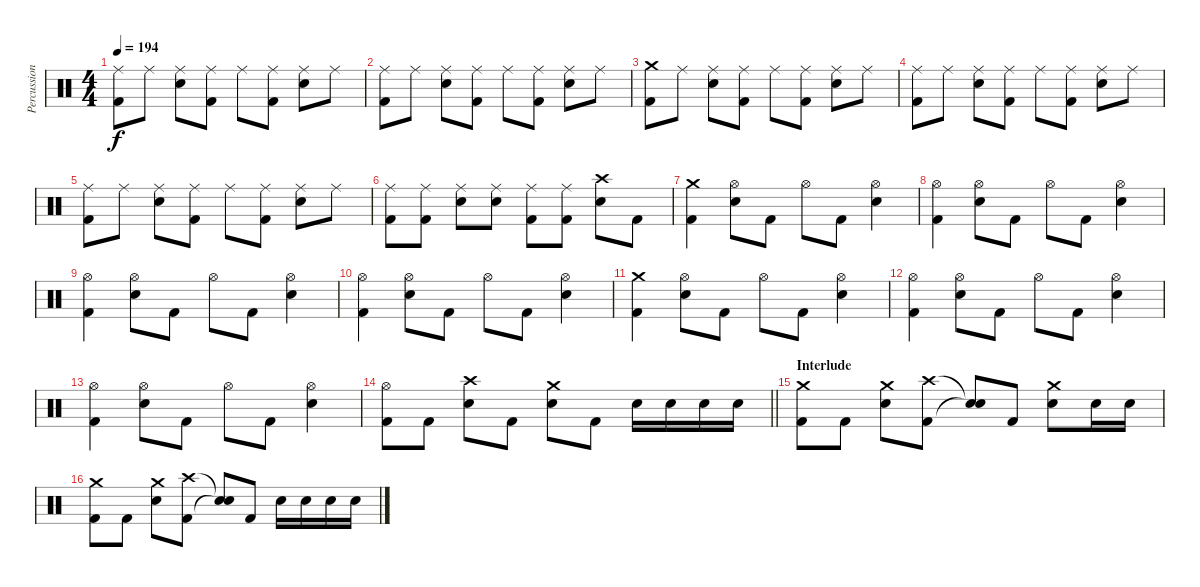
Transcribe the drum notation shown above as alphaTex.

\track ("Percussions" "Percussion") {instrument percussion}
\staff {score}
\articulation defaults
\ts (4 4)
\tempo 194
\clef neutral
\ks c
("Ride (middle)" "Kick (hit) 2").8{dy f} "Ride (middle)".8 ("Ride (middle)" "Electric Snare (hit)").8 ("Ride (middle)" "Kick (hit) 2").8 "Ride (middle)".8 ("Ride (middle)" "Kick (hit) 2").8 ("Ride (middle)" "Electric Snare (hit)").8 "Ride (middle)".8 |
("Ride (middle)" "Kick (hit) 2").8 "Ride (middle)".8 ("Ride (middle)" "Electric Snare (hit)").8 ("Ride (middle)" "Kick (hit) 2").8 "Ride (middle)".8 ("Ride (middle)" "Kick (hit) 2").8 ("Ride (middle)" "Electric Snare (hit)").8 "Ride (middle)".8 |
("Crash medium (hit)" "Kick (hit) 2").8 "Ride (middle)".8 ("Ride (middle)" "Electric Snare (hit)").8 ("Ride (middle)" "Kick (hit) 2").8 "Ride (middle)".8 ("Ride (middle)" "Kick (hit) 2").8 ("Ride (middle)" "Electric Snare (hit)").8 "Ride (middle)".8 |
("Ride (middle)" "Kick (hit) 2").8 "Ride (middle)".8 ("Ride (middle)" "Electric Snare (hit)").8 ("Ride (middle)" "Kick (hit) 2").8 "Ride (middle)".8 ("Ride (middle)" "Kick (hit) 2").8 ("Ride (middle)" "Electric Snare (hit)").8 "Ride (middle)".8 |
("Ride (middle)" "Kick (hit) 2").8 "Ride (middle)".8 ("Ride (middle)" "Electric Snare (hit)").8 ("Ride (middle)" "Kick (hit) 2").8 "Ride (middle)".8 ("Ride (middle)" "Kick (hit) 2").8 ("Ride (middle)" "Electric Snare (hit)").8 "Ride (middle)".8 |
("Ride (middle)" "Kick (hit) 2").8 ("Ride (middle)" "Kick (hit) 2").8 ("Ride (middle)" "Electric Snare (hit)").8 ("Ride (middle)" "Electric Snare (hit)").8 ("Ride (middle)" "Kick (hit) 2").8 ("Ride (middle)" "Kick (hit) 2").8 ("Crash high (hit)" "Electric Snare (hit)").8 "Kick (hit) 2".8 |
("Crash medium (hit)" "Kick (hit) 2").4 ("Hi-Hat (open)" "Electric Snare (hit)").8 "Kick (hit) 2".8 "Hi-Hat (open)".8 "Kick (hit) 2".8 ("Hi-Hat (open)" "Electric Snare (hit)").4 |
("Hi-Hat (open)" "Kick (hit) 2").4 ("Hi-Hat (open)" "Electric Snare (hit)").8 "Kick (hit) 2".8 "Hi-Hat (open)".8 "Kick (hit) 2".8 ("Hi-Hat (open)" "Electric Snare (hit)").4 |
("Hi-Hat (open)" "Kick (hit) 2").4 ("Hi-Hat (open)" "Electric Snare (hit)").8 "Kick (hit) 2".8 "Hi-Hat (open)".8 "Kick (hit) 2".8 ("Hi-Hat (open)" "Electric Snare (hit)").4 |
("Hi-Hat (open)" "Kick (hit) 2").4 ("Hi-Hat (open)" "Electric Snare (hit)").8 "Kick (hit) 2".8 "Hi-Hat (open)".8 "Kick (hit) 2".8 ("Hi-Hat (open)" "Electric Snare (hit)").4 |
("Crash medium (hit)" "Kick (hit) 2").4 ("Hi-Hat (open)" "Electric Snare (hit)").8 "Kick (hit) 2".8 "Hi-Hat (open)".8 "Kick (hit) 2".8 ("Hi-Hat (open)" "Electric Snare (hit)").4 |
("Hi-Hat (open)" "Kick (hit) 2").4 ("Hi-Hat (open)" "Electric Snare (hit)").8 "Kick (hit) 2".8 "Hi-Hat (open)".8 "Kick (hit) 2".8 ("Hi-Hat (open)" "Electric Snare (hit)").4 |
("Hi-Hat (open)" "Kick (hit) 2").4 ("Hi-Hat (open)" "Electric Snare (hit)").8 "Kick (hit) 2".8 "Hi-Hat (open)".8 "Kick (hit) 2".8 ("Hi-Hat (open)" "Electric Snare (hit)").4 |
\barLineRight lightlight
("Hi-Hat (open)" "Kick (hit) 2").8 "Kick (hit) 2".8 ("Crash high (hit)" "Electric Snare (hit)").8 "Kick (hit) 2".8 ("Crash medium (hit)" "Electric Snare (hit)").8 "Kick (hit) 2".8 "Electric Snare (hit)".16 "Electric Snare (hit)".16 "Electric Snare (hit)".16 "Electric Snare (hit)".16 |
\section ("" "Interlude")
("Crash medium (hit)" "Kick (hit) 2").8 "Kick (hit) 2".8 ("Crash medium (hit)" "Electric Snare (hit)").8 ("Crash high (hit)" "Kick (hit) 2").8 ("Snare (hit)"{t} "Snare (hit)"{t}).8 "Kick (hit) 2".8 ("Crash medium (hit)" "Electric Snare (hit)").8 "Electric Snare (hit)".16 "Electric Snare (hit)".16 |
("Crash medium (hit)" "Kick (hit) 2").8 "Kick (hit) 2".8 ("Crash medium (hit)" "Electric Snare (hit)").8 ("Crash high (hit)" "Kick (hit) 2").8 ("Snare (hit)"{t} "Snare (hit)"{t}).8 "Kick (hit) 2".8 "Electric Snare (hit)".16 "Electric Snare (hit)".16 "Electric Snare (hit)".16 "Electric Snare (hit)".16
